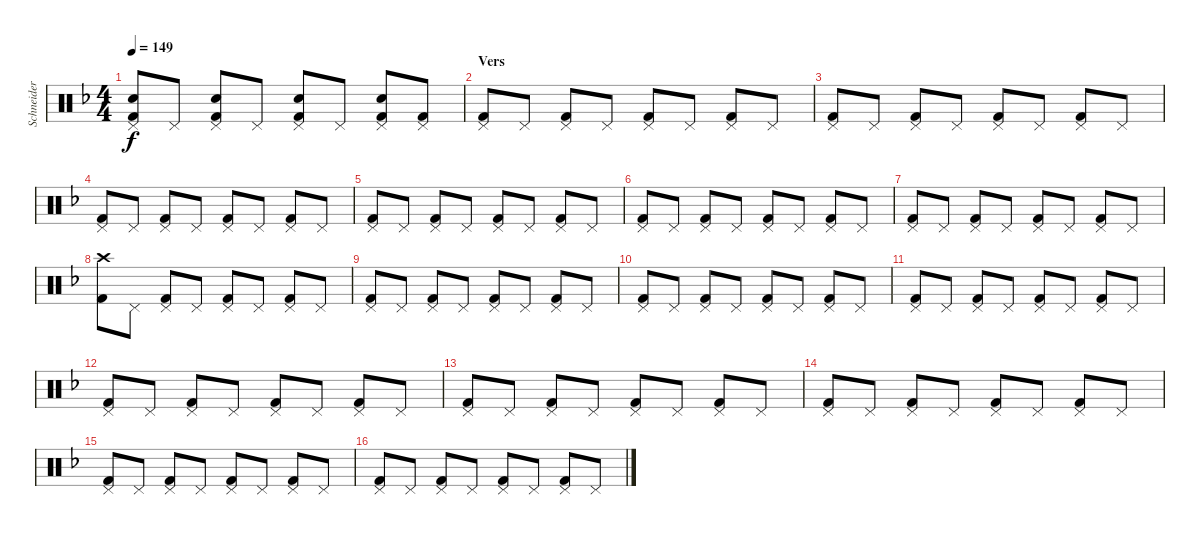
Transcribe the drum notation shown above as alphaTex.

\track ("Schneider" "Schneider") {instrument percussion}
\staff {score}
\articulation defaults
\ts (4 4)
\tempo 149
\clef neutral
\ks dminor
("Pedal Hi-Hat (hit)" "Snare (hit) 2" "Kick (hit) 2").8{dy f} "Pedal Hi-Hat (hit)".8 ("Pedal Hi-Hat (hit)" "Snare (hit) 2" "Kick (hit) 2").8 "Pedal Hi-Hat (hit)".8 ("Pedal Hi-Hat (hit)" "Snare (hit) 2" "Kick (hit) 2").8 "Pedal Hi-Hat (hit)".8 ("Pedal Hi-Hat (hit)" "Snare (hit) 2" "Kick (hit) 2").8 ("Pedal Hi-Hat (hit)" "Kick (hit) 2").8 |
\section ("" "Vers")
("Pedal Hi-Hat (hit)" "Kick (hit) 2").8 "Pedal Hi-Hat (hit)".8 ("Pedal Hi-Hat (hit)" "Kick (hit) 2").8 "Pedal Hi-Hat (hit)".8 ("Pedal Hi-Hat (hit)" "Kick (hit) 2").8 "Pedal Hi-Hat (hit)".8 ("Pedal Hi-Hat (hit)" "Kick (hit) 2").8 "Pedal Hi-Hat (hit)".8 |
("Pedal Hi-Hat (hit)" "Kick (hit) 2").8 "Pedal Hi-Hat (hit)".8 ("Pedal Hi-Hat (hit)" "Kick (hit) 2").8 "Pedal Hi-Hat (hit)".8 ("Pedal Hi-Hat (hit)" "Kick (hit) 2").8 "Pedal Hi-Hat (hit)".8 ("Pedal Hi-Hat (hit)" "Kick (hit) 2").8 "Pedal Hi-Hat (hit)".8 |
("Pedal Hi-Hat (hit)" "Kick (hit) 2").8 "Pedal Hi-Hat (hit)".8 ("Pedal Hi-Hat (hit)" "Kick (hit) 2").8 "Pedal Hi-Hat (hit)".8 ("Pedal Hi-Hat (hit)" "Kick (hit) 2").8 "Pedal Hi-Hat (hit)".8 ("Pedal Hi-Hat (hit)" "Kick (hit) 2").8 "Pedal Hi-Hat (hit)".8 |
("Pedal Hi-Hat (hit)" "Kick (hit) 2").8 "Pedal Hi-Hat (hit)".8 ("Pedal Hi-Hat (hit)" "Kick (hit) 2").8 "Pedal Hi-Hat (hit)".8 ("Pedal Hi-Hat (hit)" "Kick (hit) 2").8 "Pedal Hi-Hat (hit)".8 ("Pedal Hi-Hat (hit)" "Kick (hit) 2").8 "Pedal Hi-Hat (hit)".8 |
("Pedal Hi-Hat (hit)" "Kick (hit) 2").8 "Pedal Hi-Hat (hit)".8 ("Pedal Hi-Hat (hit)" "Kick (hit) 2").8 "Pedal Hi-Hat (hit)".8 ("Pedal Hi-Hat (hit)" "Kick (hit) 2").8 "Pedal Hi-Hat (hit)".8 ("Pedal Hi-Hat (hit)" "Kick (hit) 2").8 "Pedal Hi-Hat (hit)".8 |
("Pedal Hi-Hat (hit)" "Kick (hit) 2").8 "Pedal Hi-Hat (hit)".8 ("Pedal Hi-Hat (hit)" "Kick (hit) 2").8 "Pedal Hi-Hat (hit)".8 ("Pedal Hi-Hat (hit)" "Kick (hit) 2").8 "Pedal Hi-Hat (hit)".8 ("Pedal Hi-Hat (hit)" "Kick (hit) 2").8 "Pedal Hi-Hat (hit)".8 |
("Crash high (hit)" "Kick (hit) 2").8 "Pedal Hi-Hat (hit)".8 ("Pedal Hi-Hat (hit)" "Kick (hit) 2").8 "Pedal Hi-Hat (hit)".8 ("Pedal Hi-Hat (hit)" "Kick (hit) 2").8 "Pedal Hi-Hat (hit)".8 ("Pedal Hi-Hat (hit)" "Kick (hit) 2").8 "Pedal Hi-Hat (hit)".8 |
("Pedal Hi-Hat (hit)" "Kick (hit) 2").8 "Pedal Hi-Hat (hit)".8 ("Pedal Hi-Hat (hit)" "Kick (hit) 2").8 "Pedal Hi-Hat (hit)".8 ("Pedal Hi-Hat (hit)" "Kick (hit) 2").8 "Pedal Hi-Hat (hit)".8 ("Pedal Hi-Hat (hit)" "Kick (hit) 2").8 "Pedal Hi-Hat (hit)".8 |
("Pedal Hi-Hat (hit)" "Kick (hit) 2").8 "Pedal Hi-Hat (hit)".8 ("Pedal Hi-Hat (hit)" "Kick (hit) 2").8 "Pedal Hi-Hat (hit)".8 ("Pedal Hi-Hat (hit)" "Kick (hit) 2").8 "Pedal Hi-Hat (hit)".8 ("Pedal Hi-Hat (hit)" "Kick (hit) 2").8 "Pedal Hi-Hat (hit)".8 |
("Pedal Hi-Hat (hit)" "Kick (hit) 2").8 "Pedal Hi-Hat (hit)".8 ("Pedal Hi-Hat (hit)" "Kick (hit) 2").8 "Pedal Hi-Hat (hit)".8 ("Pedal Hi-Hat (hit)" "Kick (hit) 2").8 "Pedal Hi-Hat (hit)".8 ("Pedal Hi-Hat (hit)" "Kick (hit) 2").8 "Pedal Hi-Hat (hit)".8 |
("Pedal Hi-Hat (hit)" "Kick (hit) 2").8 "Pedal Hi-Hat (hit)".8 ("Pedal Hi-Hat (hit)" "Kick (hit) 2").8 "Pedal Hi-Hat (hit)".8 ("Pedal Hi-Hat (hit)" "Kick (hit) 2").8 "Pedal Hi-Hat (hit)".8 ("Pedal Hi-Hat (hit)" "Kick (hit) 2").8 "Pedal Hi-Hat (hit)".8 |
("Pedal Hi-Hat (hit)" "Kick (hit) 2").8 "Pedal Hi-Hat (hit)".8 ("Pedal Hi-Hat (hit)" "Kick (hit) 2").8 "Pedal Hi-Hat (hit)".8 ("Pedal Hi-Hat (hit)" "Kick (hit) 2").8 "Pedal Hi-Hat (hit)".8 ("Pedal Hi-Hat (hit)" "Kick (hit) 2").8 "Pedal Hi-Hat (hit)".8 |
("Pedal Hi-Hat (hit)" "Kick (hit) 2").8 "Pedal Hi-Hat (hit)".8 ("Pedal Hi-Hat (hit)" "Kick (hit) 2").8 "Pedal Hi-Hat (hit)".8 ("Pedal Hi-Hat (hit)" "Kick (hit) 2").8 "Pedal Hi-Hat (hit)".8 ("Pedal Hi-Hat (hit)" "Kick (hit) 2").8 "Pedal Hi-Hat (hit)".8 |
("Pedal Hi-Hat (hit)" "Kick (hit) 2").8 "Pedal Hi-Hat (hit)".8 ("Pedal Hi-Hat (hit)" "Kick (hit) 2").8 "Pedal Hi-Hat (hit)".8 ("Pedal Hi-Hat (hit)" "Kick (hit) 2").8 "Pedal Hi-Hat (hit)".8 ("Pedal Hi-Hat (hit)" "Kick (hit) 2").8 "Pedal Hi-Hat (hit)".8 |
("Pedal Hi-Hat (hit)" "Kick (hit) 2").8 "Pedal Hi-Hat (hit)".8 ("Pedal Hi-Hat (hit)" "Kick (hit) 2").8 "Pedal Hi-Hat (hit)".8 ("Pedal Hi-Hat (hit)" "Kick (hit) 2").8 "Pedal Hi-Hat (hit)".8 ("Pedal Hi-Hat (hit)" "Kick (hit) 2").8 "Pedal Hi-Hat (hit)".8
